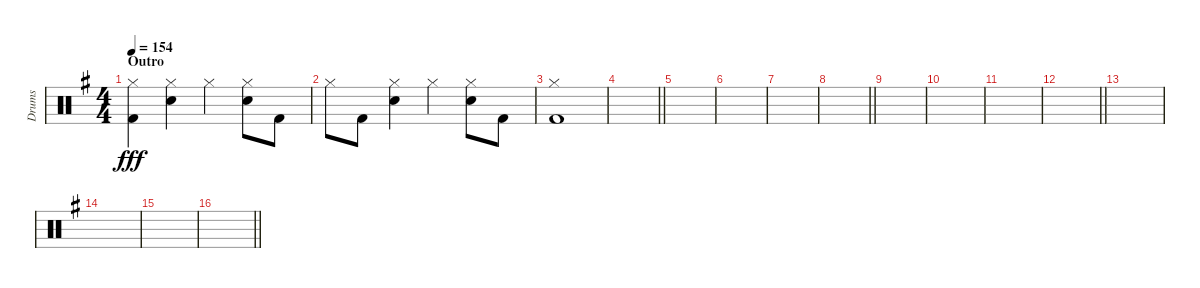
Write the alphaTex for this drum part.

\track ("Drums" "Drums") {instrument percussion}
\staff {score}
\articulation defaults
\ts (4 4)
\section ("" "Outro")
\tempo 154
\clef neutral
\ks g
("Hi-Hat (closed)" "Kick (hit) 2").4{dy fff} ("Hi-Hat (closed)" "Snare (hit) 2").4 "Hi-Hat (closed)".4 ("Hi-Hat (closed)" "Snare (hit) 2").8 "Kick (hit) 2".8 |
"Hi-Hat (closed)".8 "Kick (hit) 2".8 ("Hi-Hat (closed)" "Snare (hit) 2").4 "Hi-Hat (closed)".4 ("Hi-Hat (closed)" "Snare (hit) 2").8 "Kick (hit) 2".8 |
("Hi-Hat (closed)" "Kick (hit) 2").1 |
\barLineRight lightlight
|
|
|
|
\barLineRight lightlight
|
|
|
|
\barLineRight lightlight
|
|
|
|
\barLineRight lightlight
